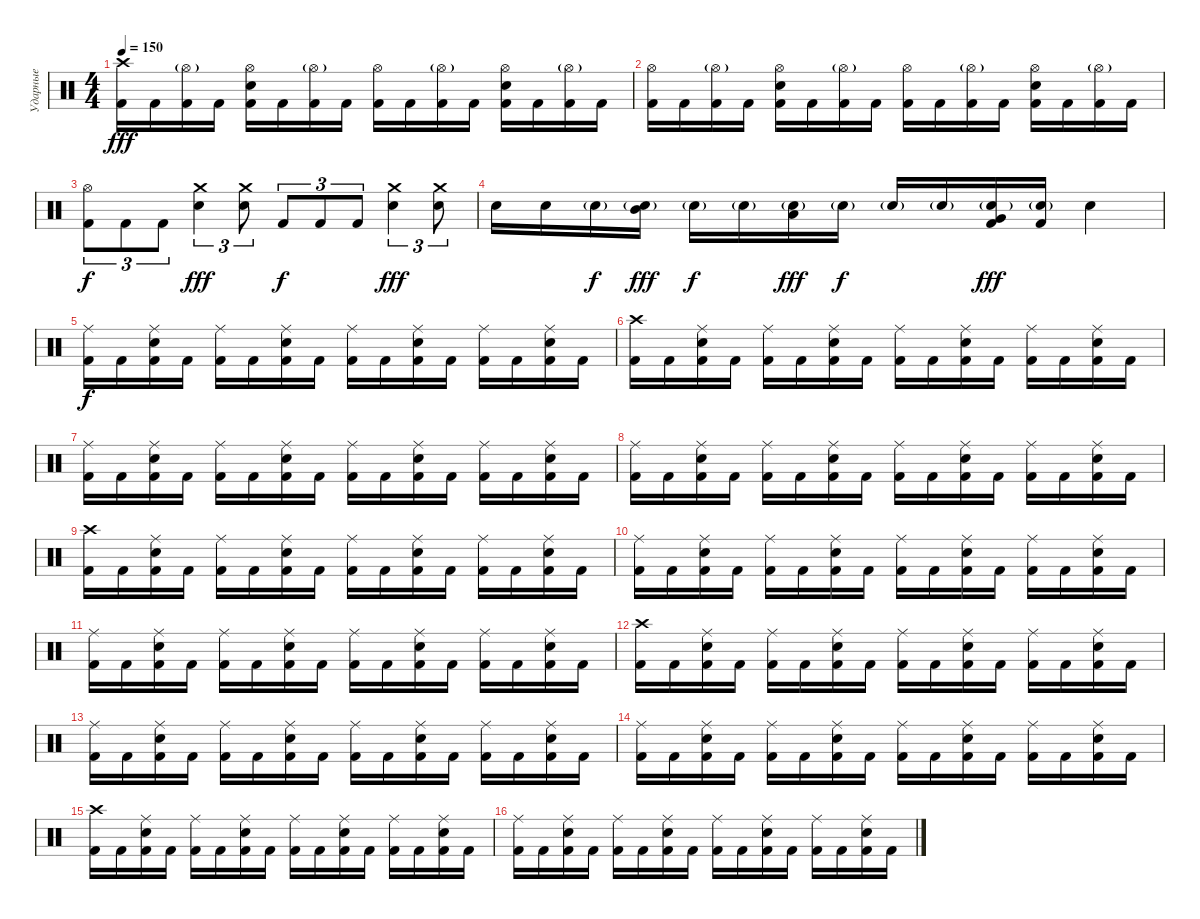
\track ("Ударные" "Ударные") {instrument percussion}
\staff {score}
\articulation defaults
\ts (4 4)
\tempo 150
\clef neutral
\ks c
("Crash high (hit)" "Kick (hit) 2").16{dy fff} "Kick (hit) 2".16 ("Hi-Hat (open)"{g} "Kick (hit) 2").16 "Kick (hit) 2".16 ("Hi-Hat (open)" "Electric Snare (hit)" "Kick (hit) 2").16 "Kick (hit) 2".16 ("Hi-Hat (open)"{g} "Kick (hit) 2").16 "Kick (hit) 2".16 ("Hi-Hat (open)" "Kick (hit) 2").16 "Kick (hit) 2".16 ("Hi-Hat (open)"{g} "Kick (hit) 2").16 "Kick (hit) 2".16 ("Hi-Hat (open)" "Electric Snare (hit)" "Kick (hit) 2").16 "Kick (hit) 2".16 ("Hi-Hat (open)"{g} "Kick (hit) 2").16 "Kick (hit) 2".16 |
("Hi-Hat (open)" "Kick (hit) 2").16 "Kick (hit) 2".16 ("Hi-Hat (open)"{g} "Kick (hit) 2").16 "Kick (hit) 2".16 ("Hi-Hat (open)" "Electric Snare (hit)" "Kick (hit) 2").16 "Kick (hit) 2".16 ("Hi-Hat (open)"{g} "Kick (hit) 2").16 "Kick (hit) 2".16 ("Hi-Hat (open)" "Kick (hit) 2").16 "Kick (hit) 2".16 ("Hi-Hat (open)"{g} "Kick (hit) 2").16 "Kick (hit) 2".16 ("Hi-Hat (open)" "Electric Snare (hit)" "Kick (hit) 2").16 "Kick (hit) 2".16 ("Hi-Hat (open)"{g} "Kick (hit) 2").16 "Kick (hit) 2".16 |
("Hi-Hat (open)" "Kick (hit) 2").8{tu (3 2) dy f} "Kick (hit) 2".8{tu (3 2)} "Kick (hit) 2".8{tu (3 2)} ("Crash medium (hit)" "Electric Snare (hit)").4{tu (3 2) dy fff} ("Crash medium (hit)" "Electric Snare (hit)").8{tu (3 2)} "Kick (hit) 2".8{tu (3 2) dy f} "Kick (hit) 2".8{tu (3 2)} "Kick (hit) 2".8{tu (3 2)} ("Crash medium (hit)" "Electric Snare (hit)").4{tu (3 2) dy fff} ("Crash medium (hit)" "Electric Snare (hit)").8{tu (3 2)} |
"Electric Snare (hit)".16 "Electric Snare (hit)".16 "Electric Snare (hit)"{g}.16{dy f} ("Mid Tom (hit)" "Electric Snare (hit)"{g}).16{dy fff} "Electric Snare (hit)"{g}.16{dy f} "Electric Snare (hit)"{g}.16 ("Low Tom (hit)" "Electric Snare (hit)"{g}).16{dy fff} "Electric Snare (hit)"{g}.16{dy f} "Electric Snare (hit)"{g}.16 "Electric Snare (hit)"{g}.16 ("Electric Snare (hit)"{g} "Very Low Tom (hit)" "Kick (hit) 2").16{dy fff} ("Electric Snare (hit)"{g} "Kick (hit) 2").16 "Electric Snare (hit)".4 |
("Ride (middle)" "Kick (hit) 2").16{dy f} "Kick (hit) 2".16 ("Ride (middle)" "Electric Snare (hit)" "Kick (hit) 2").16 "Kick (hit) 2".16 ("Ride (middle)" "Kick (hit) 2").16 "Kick (hit) 2".16 ("Ride (middle)" "Electric Snare (hit)" "Kick (hit) 2").16 "Kick (hit) 2".16 ("Ride (middle)" "Kick (hit) 2").16 "Kick (hit) 2".16 ("Ride (middle)" "Electric Snare (hit)" "Kick (hit) 2").16 "Kick (hit) 2".16 ("Ride (middle)" "Kick (hit) 2").16 "Kick (hit) 2".16 ("Ride (middle)" "Electric Snare (hit)" "Kick (hit) 2").16 "Kick (hit) 2".16 |
("Crash high (hit)" "Kick (hit) 2").16 "Kick (hit) 2".16 ("Ride (middle)" "Electric Snare (hit)" "Kick (hit) 2").16 "Kick (hit) 2".16 ("Ride (middle)" "Kick (hit) 2").16 "Kick (hit) 2".16 ("Ride (middle)" "Electric Snare (hit)" "Kick (hit) 2").16 "Kick (hit) 2".16 ("Ride (middle)" "Kick (hit) 2").16 "Kick (hit) 2".16 ("Ride (middle)" "Electric Snare (hit)" "Kick (hit) 2").16 "Kick (hit) 2".16 ("Ride (middle)" "Kick (hit) 2").16 "Kick (hit) 2".16 ("Ride (middle)" "Electric Snare (hit)" "Kick (hit) 2").16 "Kick (hit) 2".16 |
("Ride (middle)" "Kick (hit) 2").16 "Kick (hit) 2".16 ("Ride (middle)" "Electric Snare (hit)" "Kick (hit) 2").16 "Kick (hit) 2".16 ("Ride (middle)" "Kick (hit) 2").16 "Kick (hit) 2".16 ("Ride (middle)" "Electric Snare (hit)" "Kick (hit) 2").16 "Kick (hit) 2".16 ("Ride (middle)" "Kick (hit) 2").16 "Kick (hit) 2".16 ("Ride (middle)" "Electric Snare (hit)" "Kick (hit) 2").16 "Kick (hit) 2".16 ("Ride (middle)" "Kick (hit) 2").16 "Kick (hit) 2".16 ("Ride (middle)" "Electric Snare (hit)" "Kick (hit) 2").16 "Kick (hit) 2".16 |
("Ride (middle)" "Kick (hit) 2").16 "Kick (hit) 2".16 ("Ride (middle)" "Electric Snare (hit)" "Kick (hit) 2").16 "Kick (hit) 2".16 ("Ride (middle)" "Kick (hit) 2").16 "Kick (hit) 2".16 ("Ride (middle)" "Electric Snare (hit)" "Kick (hit) 2").16 "Kick (hit) 2".16 ("Ride (middle)" "Kick (hit) 2").16 "Kick (hit) 2".16 ("Ride (middle)" "Electric Snare (hit)" "Kick (hit) 2").16 "Kick (hit) 2".16 ("Ride (middle)" "Kick (hit) 2").16 "Kick (hit) 2".16 ("Ride (middle)" "Electric Snare (hit)" "Kick (hit) 2").16 "Kick (hit) 2".16 |
("Crash high (hit)" "Kick (hit) 2").16 "Kick (hit) 2".16 ("Ride (middle)" "Electric Snare (hit)" "Kick (hit) 2").16 "Kick (hit) 2".16 ("Ride (middle)" "Kick (hit) 2").16 "Kick (hit) 2".16 ("Ride (middle)" "Electric Snare (hit)" "Kick (hit) 2").16 "Kick (hit) 2".16 ("Ride (middle)" "Kick (hit) 2").16 "Kick (hit) 2".16 ("Ride (middle)" "Electric Snare (hit)" "Kick (hit) 2").16 "Kick (hit) 2".16 ("Ride (middle)" "Kick (hit) 2").16 "Kick (hit) 2".16 ("Ride (middle)" "Electric Snare (hit)" "Kick (hit) 2").16 "Kick (hit) 2".16 |
("Ride (middle)" "Kick (hit) 2").16 "Kick (hit) 2".16 ("Ride (middle)" "Electric Snare (hit)" "Kick (hit) 2").16 "Kick (hit) 2".16 ("Ride (middle)" "Kick (hit) 2").16 "Kick (hit) 2".16 ("Ride (middle)" "Electric Snare (hit)" "Kick (hit) 2").16 "Kick (hit) 2".16 ("Ride (middle)" "Kick (hit) 2").16 "Kick (hit) 2".16 ("Ride (middle)" "Electric Snare (hit)" "Kick (hit) 2").16 "Kick (hit) 2".16 ("Ride (middle)" "Kick (hit) 2").16 "Kick (hit) 2".16 ("Ride (middle)" "Electric Snare (hit)" "Kick (hit) 2").16 "Kick (hit) 2".16 |
("Ride (middle)" "Kick (hit) 2").16 "Kick (hit) 2".16 ("Ride (middle)" "Electric Snare (hit)" "Kick (hit) 2").16 "Kick (hit) 2".16 ("Ride (middle)" "Kick (hit) 2").16 "Kick (hit) 2".16 ("Ride (middle)" "Electric Snare (hit)" "Kick (hit) 2").16 "Kick (hit) 2".16 ("Ride (middle)" "Kick (hit) 2").16 "Kick (hit) 2".16 ("Ride (middle)" "Electric Snare (hit)" "Kick (hit) 2").16 "Kick (hit) 2".16 ("Ride (middle)" "Kick (hit) 2").16 "Kick (hit) 2".16 ("Ride (middle)" "Electric Snare (hit)" "Kick (hit) 2").16 "Kick (hit) 2".16 |
("Crash high (hit)" "Kick (hit) 2").16 "Kick (hit) 2".16 ("Ride (middle)" "Electric Snare (hit)" "Kick (hit) 2").16 "Kick (hit) 2".16 ("Ride (middle)" "Kick (hit) 2").16 "Kick (hit) 2".16 ("Ride (middle)" "Electric Snare (hit)" "Kick (hit) 2").16 "Kick (hit) 2".16 ("Ride (middle)" "Kick (hit) 2").16 "Kick (hit) 2".16 ("Ride (middle)" "Electric Snare (hit)" "Kick (hit) 2").16 "Kick (hit) 2".16 ("Ride (middle)" "Kick (hit) 2").16 "Kick (hit) 2".16 ("Ride (middle)" "Electric Snare (hit)" "Kick (hit) 2").16 "Kick (hit) 2".16 |
("Ride (middle)" "Kick (hit) 2").16 "Kick (hit) 2".16 ("Ride (middle)" "Electric Snare (hit)" "Kick (hit) 2").16 "Kick (hit) 2".16 ("Ride (middle)" "Kick (hit) 2").16 "Kick (hit) 2".16 ("Ride (middle)" "Electric Snare (hit)" "Kick (hit) 2").16 "Kick (hit) 2".16 ("Ride (middle)" "Kick (hit) 2").16 "Kick (hit) 2".16 ("Ride (middle)" "Electric Snare (hit)" "Kick (hit) 2").16 "Kick (hit) 2".16 ("Ride (middle)" "Kick (hit) 2").16 "Kick (hit) 2".16 ("Ride (middle)" "Electric Snare (hit)" "Kick (hit) 2").16 "Kick (hit) 2".16 |
("Ride (middle)" "Kick (hit) 2").16 "Kick (hit) 2".16 ("Ride (middle)" "Electric Snare (hit)" "Kick (hit) 2").16 "Kick (hit) 2".16 ("Ride (middle)" "Kick (hit) 2").16 "Kick (hit) 2".16 ("Ride (middle)" "Electric Snare (hit)" "Kick (hit) 2").16 "Kick (hit) 2".16 ("Ride (middle)" "Kick (hit) 2").16 "Kick (hit) 2".16 ("Ride (middle)" "Electric Snare (hit)" "Kick (hit) 2").16 "Kick (hit) 2".16 ("Ride (middle)" "Kick (hit) 2").16 "Kick (hit) 2".16 ("Ride (middle)" "Electric Snare (hit)" "Kick (hit) 2").16 "Kick (hit) 2".16 |
("Crash high (hit)" "Kick (hit) 2").16 "Kick (hit) 2".16 ("Ride (middle)" "Electric Snare (hit)" "Kick (hit) 2").16 "Kick (hit) 2".16 ("Ride (middle)" "Kick (hit) 2").16 "Kick (hit) 2".16 ("Ride (middle)" "Electric Snare (hit)" "Kick (hit) 2").16 "Kick (hit) 2".16 ("Ride (middle)" "Kick (hit) 2").16 "Kick (hit) 2".16 ("Ride (middle)" "Electric Snare (hit)" "Kick (hit) 2").16 "Kick (hit) 2".16 ("Ride (middle)" "Kick (hit) 2").16 "Kick (hit) 2".16 ("Ride (middle)" "Electric Snare (hit)" "Kick (hit) 2").16 "Kick (hit) 2".16 |
("Ride (middle)" "Kick (hit) 2").16 "Kick (hit) 2".16 ("Ride (middle)" "Electric Snare (hit)" "Kick (hit) 2").16 "Kick (hit) 2".16 ("Ride (middle)" "Kick (hit) 2").16 "Kick (hit) 2".16 ("Ride (middle)" "Electric Snare (hit)" "Kick (hit) 2").16 "Kick (hit) 2".16 ("Ride (middle)" "Kick (hit) 2").16 "Kick (hit) 2".16 ("Ride (middle)" "Electric Snare (hit)" "Kick (hit) 2").16 "Kick (hit) 2".16 ("Ride (middle)" "Kick (hit) 2").16 "Kick (hit) 2".16 ("Ride (middle)" "Electric Snare (hit)" "Kick (hit) 2").16 "Kick (hit) 2".16
